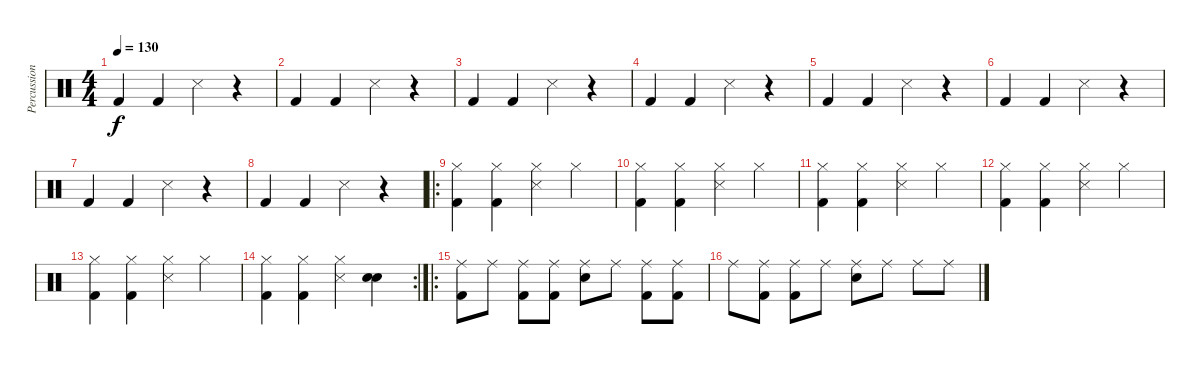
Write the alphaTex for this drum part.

\track ("Percussions" "Percussion") {instrument percussion}
\staff {score}
\articulation defaults
\ts (4 4)
\tempo 130
\clef neutral
\ks c "Kick (hit) 2".4{dy f} "Kick (hit) 2".4 "Snare (side stick) 3".4
r.4 |
"Kick (hit) 2".4 "Kick (hit) 2".4 "Snare (side stick) 3".4 r.4 |
"Kick (hit) 2".4 "Kick (hit) 2".4 "Snare (side stick) 3".4 r.4 |
"Kick (hit) 2".4 "Kick (hit) 2".4 "Snare (side stick) 3".4 r.4 |
"Kick (hit) 2".4 "Kick (hit) 2".4 "Snare (side stick) 3".4 r.4 |
"Kick (hit) 2".4 "Kick (hit) 2".4 "Snare (side stick) 3".4 r.4 |
"Kick (hit) 2".4 "Kick (hit) 2".4 "Snare (side stick) 3".4 r.4 |
"Kick (hit) 2".4 "Kick (hit) 2".4 "Snare (side stick) 3".4 r.4 |
\ro
("Hi-Hat (closed)" "Kick (hit) 2").4 ("Hi-Hat (closed)" "Kick (hit) 2").4 ("Hi-Hat (closed)" "Snare (side stick) 3").4 "Hi-Hat (closed)".4 |
("Hi-Hat (closed)" "Kick (hit) 2").4 ("Hi-Hat (closed)" "Kick (hit) 2").4 ("Hi-Hat (closed)" "Snare (side stick) 3").4 "Hi-Hat (closed)".4 |
("Hi-Hat (closed)" "Kick (hit) 2").4 ("Hi-Hat (closed)" "Kick (hit) 2").4 ("Hi-Hat (closed)" "Snare (side stick) 3").4 "Hi-Hat (closed)".4 |
("Hi-Hat (closed)" "Kick (hit) 2").4 ("Hi-Hat (closed)" "Kick (hit) 2").4 ("Hi-Hat (closed)" "Snare (side stick) 3").4 "Hi-Hat (closed)".4 |
("Hi-Hat (closed)" "Kick (hit) 2").4 ("Hi-Hat (closed)" "Kick (hit) 2").4 ("Hi-Hat (closed)" "Snare (side stick) 3").4 "Hi-Hat (closed)".4 |
\rc 2
("Hi-Hat (closed)" "Kick (hit) 2").4 ("Hi-Hat (closed)" "Kick (hit) 2").4 ("Hi-Hat (closed)" "Snare (side stick) 3").4 ("Electric Snare (hit)" "Electric Snare (hit)").4{bd 240} |
\ro
("Kick (hit) 2" "Ride (middle)").8 "Ride (middle)".8 ("Kick (hit) 2" "Ride (middle)").8 ("Kick (hit) 2" "Ride (middle)").8 ("Electric Snare (hit)" "Ride (middle)").8 "Ride (middle)".8 ("Kick (hit) 2" "Ride (middle)").8 ("Kick (hit) 2" "Ride (middle)").8 |
"Ride (middle)".8 ("Kick (hit) 2" "Ride (middle)").8 ("Kick (hit) 2" "Ride (middle)").8 "Ride (middle)".8 ("Electric Snare (hit)" "Ride (middle)").8 "Ride (middle)".8 "Ride (middle)".8 "Ride (middle)".8
